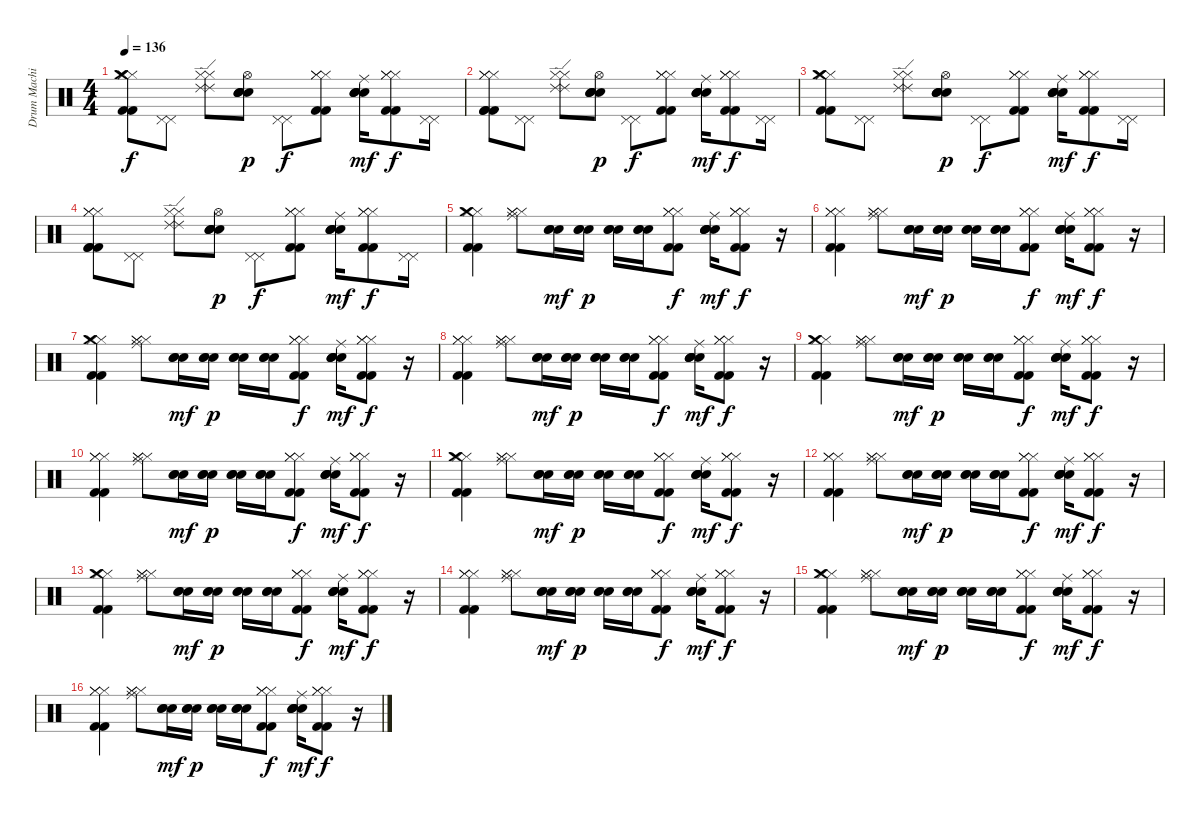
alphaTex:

\track ("Drum Machine" "Drum Machi") {instrument percussion}
\staff {score}
\articulation defaults
\ts (4 4)
\tempo 136
\clef neutral
\ks c
("Hi-Hat (closed)" "Kick (hit) 2" "Crash medium (hit)" "Kick (hit) 2" "Hi-Hat (closed)" "Hi-Hat (closed)").8{dy f} ("Pedal Hi-Hat (hit)" "Pedal Hi-Hat (hit)").8 ("Hi-Hat (closed)" "Hi-Hat (closed)" "Ride (edge) 2" "Ride (edge) 2").8 ("Electric Snare (hit)" "Snare (hit) 2" "Snare (hit) 2" "Hi-Hat (open)" "Electric Snare (hit)").8{dy p} ("Pedal Hi-Hat (hit)" "Pedal Hi-Hat (hit)").8{dy f} ("Hi-Hat (closed)" "Kick (hit) 2" "Hi-Hat (closed)" "Hi-Hat (closed)" "Kick (hit) 2").8 ("Ride (middle)" "Electric Snare (hit)" "Snare (hit) 2" "Snare (hit) 2" "Electric Snare (hit)").16{dy mf} ("Hi-Hat (closed)" "Kick (hit) 2" "Hi-Hat (closed)" "Hi-Hat (closed)" "Kick (hit) 2").8{dy f} ("Pedal Hi-Hat (hit)" "Pedal Hi-Hat (hit)").16 |
("Hi-Hat (closed)" "Kick (hit) 2" "Hi-Hat (closed)" "Kick (hit) 2" "Kick (hit) 2" "Hi-Hat (closed)").8 ("Pedal Hi-Hat (hit)" "Pedal Hi-Hat (hit)").8 ("Hi-Hat (closed)" "Hi-Hat (closed)" "Ride (edge) 2" "Ride (edge) 2").8 ("Electric Snare (hit)" "Snare (hit) 2" "Snare (hit) 2" "Hi-Hat (open)" "Electric Snare (hit)").8{dy p} ("Pedal Hi-Hat (hit)" "Pedal Hi-Hat (hit)").8{dy f} ("Hi-Hat (closed)" "Kick (hit) 2" "Hi-Hat (closed)" "Hi-Hat (closed)" "Kick (hit) 2").8 ("Ride (middle)" "Electric Snare (hit)" "Snare (hit) 2" "Snare (hit) 2" "Electric Snare (hit)").16{dy mf} ("Hi-Hat (closed)" "Kick (hit) 2" "Hi-Hat (closed)" "Hi-Hat (closed)" "Kick (hit) 2").8{dy f} ("Pedal Hi-Hat (hit)" "Pedal Hi-Hat (hit)").16 |
("Hi-Hat (closed)" "Kick (hit) 2" "Crash medium (hit)" "Kick (hit) 2" "Hi-Hat (closed)" "Hi-Hat (closed)").8 ("Pedal Hi-Hat (hit)" "Pedal Hi-Hat (hit)").8 ("Hi-Hat (closed)" "Hi-Hat (closed)" "Ride (edge) 2" "Ride (edge) 2").8 ("Electric Snare (hit)" "Snare (hit) 2" "Snare (hit) 2" "Hi-Hat (open)" "Electric Snare (hit)").8{dy p} ("Pedal Hi-Hat (hit)" "Pedal Hi-Hat (hit)").8{dy f} ("Hi-Hat (closed)" "Kick (hit) 2" "Hi-Hat (closed)" "Hi-Hat (closed)" "Kick (hit) 2").8 ("Ride (middle)" "Electric Snare (hit)" "Snare (hit) 2" "Snare (hit) 2" "Electric Snare (hit)").16{dy mf} ("Hi-Hat (closed)" "Kick (hit) 2" "Hi-Hat (closed)" "Hi-Hat (closed)" "Kick (hit) 2").8{dy f} ("Pedal Hi-Hat (hit)" "Pedal Hi-Hat (hit)").16 |
("Hi-Hat (closed)" "Kick (hit) 2" "Hi-Hat (closed)" "Kick (hit) 2" "Kick (hit) 2" "Hi-Hat (closed)").8 ("Pedal Hi-Hat (hit)" "Pedal Hi-Hat (hit)").8 ("Hi-Hat (closed)" "Hi-Hat (closed)" "Ride (edge) 2" "Ride (edge) 2").8 ("Electric Snare (hit)" "Snare (hit) 2" "Snare (hit) 2" "Hi-Hat (open)" "Electric Snare (hit)").8{dy p} ("Pedal Hi-Hat (hit)" "Pedal Hi-Hat (hit)").8{dy f} ("Hi-Hat (closed)" "Kick (hit) 2" "Hi-Hat (closed)" "Hi-Hat (closed)" "Kick (hit) 2").8 ("Ride (middle)" "Electric Snare (hit)" "Snare (hit) 2" "Snare (hit) 2" "Electric Snare (hit)").16{dy mf} ("Hi-Hat (closed)" "Kick (hit) 2" "Hi-Hat (closed)" "Hi-Hat (closed)" "Kick (hit) 2").8{dy f} ("Pedal Hi-Hat (hit)" "Pedal Hi-Hat (hit)").16 |
("Hi-Hat (closed)" "Kick (hit) 2" "Crash medium (hit)" "Kick (hit) 2" "Hi-Hat (closed)").4 ("Ride (middle)" "Hi-Hat (closed)" "Hi-Hat (closed)" "Hi-Hat (closed)").8 ("Electric Snare (hit)" "Electric Snare (hit)" "Electric Snare (hit)").16{dy mf} ("Snare (hit) 2" "Snare (hit) 2" "Snare (hit) 2").16{dy p} ("Electric Snare (hit)" "Electric Snare (hit)" "Electric Snare (hit)").16 ("Snare (hit) 2" "Snare (hit) 2" "Snare (hit) 2").16 ("Hi-Hat (closed)" "Kick (hit) 2" "Hi-Hat (closed)" "Kick (hit) 2" "Hi-Hat (closed)").8{dy f} ("Ride (middle)" "Electric Snare (hit)" "Snare (hit) 2" "Electric Snare (hit)" "Snare (hit) 2").16{dy mf} ("Hi-Hat (closed)" "Kick (hit) 2" "Hi-Hat (closed)" "Kick (hit) 2" "Hi-Hat (closed)").8{dy f} r.16 |
("Hi-Hat (closed)" "Kick (hit) 2" "Hi-Hat (closed)" "Kick (hit) 2" "Hi-Hat (closed)").4 ("Ride (middle)" "Hi-Hat (closed)" "Hi-Hat (closed)" "Hi-Hat (closed)").8 ("Electric Snare (hit)" "Electric Snare (hit)" "Electric Snare (hit)").16{dy mf} ("Snare (hit) 2" "Snare (hit) 2" "Snare (hit) 2").16{dy p} ("Electric Snare (hit)" "Electric Snare (hit)" "Electric Snare (hit)").16 ("Snare (hit) 2" "Snare (hit) 2" "Snare (hit) 2").16 ("Hi-Hat (closed)" "Kick (hit) 2" "Hi-Hat (closed)" "Kick (hit) 2" "Hi-Hat (closed)").8{dy f} ("Ride (middle)" "Electric Snare (hit)" "Snare (hit) 2" "Electric Snare (hit)" "Snare (hit) 2").16{dy mf} ("Hi-Hat (closed)" "Kick (hit) 2" "Hi-Hat (closed)" "Kick (hit) 2" "Hi-Hat (closed)").8{dy f} r.16 |
("Hi-Hat (closed)" "Kick (hit) 2" "Crash medium (hit)" "Kick (hit) 2" "Hi-Hat (closed)").4 ("Ride (middle)" "Hi-Hat (closed)" "Hi-Hat (closed)" "Hi-Hat (closed)").8 ("Electric Snare (hit)" "Electric Snare (hit)" "Electric Snare (hit)").16{dy mf} ("Snare (hit) 2" "Snare (hit) 2" "Snare (hit) 2").16{dy p} ("Electric Snare (hit)" "Electric Snare (hit)" "Electric Snare (hit)").16 ("Snare (hit) 2" "Snare (hit) 2" "Snare (hit) 2").16 ("Hi-Hat (closed)" "Kick (hit) 2" "Hi-Hat (closed)" "Kick (hit) 2" "Hi-Hat (closed)").8{dy f} ("Ride (middle)" "Electric Snare (hit)" "Snare (hit) 2" "Electric Snare (hit)" "Snare (hit) 2").16{dy mf} ("Hi-Hat (closed)" "Kick (hit) 2" "Hi-Hat (closed)" "Kick (hit) 2" "Hi-Hat (closed)").8{dy f} r.16 |
("Hi-Hat (closed)" "Kick (hit) 2" "Hi-Hat (closed)" "Kick (hit) 2" "Hi-Hat (closed)").4 ("Ride (middle)" "Hi-Hat (closed)" "Hi-Hat (closed)" "Hi-Hat (closed)").8 ("Electric Snare (hit)" "Electric Snare (hit)" "Electric Snare (hit)").16{dy mf} ("Snare (hit) 2" "Snare (hit) 2" "Snare (hit) 2").16{dy p} ("Electric Snare (hit)" "Electric Snare (hit)" "Electric Snare (hit)").16 ("Snare (hit) 2" "Snare (hit) 2" "Snare (hit) 2").16 ("Hi-Hat (closed)" "Kick (hit) 2" "Hi-Hat (closed)" "Kick (hit) 2" "Hi-Hat (closed)").8{dy f} ("Ride (middle)" "Electric Snare (hit)" "Snare (hit) 2" "Electric Snare (hit)" "Snare (hit) 2").16{dy mf} ("Hi-Hat (closed)" "Kick (hit) 2" "Hi-Hat (closed)" "Kick (hit) 2" "Hi-Hat (closed)").8{dy f} r.16 |
("Hi-Hat (closed)" "Kick (hit) 2" "Crash medium (hit)" "Kick (hit) 2" "Hi-Hat (closed)").4 ("Ride (middle)" "Hi-Hat (closed)" "Hi-Hat (closed)" "Hi-Hat (closed)").8 ("Electric Snare (hit)" "Electric Snare (hit)" "Electric Snare (hit)").16{dy mf} ("Snare (hit) 2" "Snare (hit) 2" "Snare (hit) 2").16{dy p} ("Electric Snare (hit)" "Electric Snare (hit)" "Electric Snare (hit)").16 ("Snare (hit) 2" "Snare (hit) 2" "Snare (hit) 2").16 ("Hi-Hat (closed)" "Kick (hit) 2" "Hi-Hat (closed)" "Kick (hit) 2" "Hi-Hat (closed)").8{dy f} ("Ride (middle)" "Electric Snare (hit)" "Snare (hit) 2" "Electric Snare (hit)" "Snare (hit) 2").16{dy mf} ("Hi-Hat (closed)" "Kick (hit) 2" "Hi-Hat (closed)" "Kick (hit) 2" "Hi-Hat (closed)").8{dy f} r.16 |
("Hi-Hat (closed)" "Kick (hit) 2" "Hi-Hat (closed)" "Kick (hit) 2" "Hi-Hat (closed)").4 ("Ride (middle)" "Hi-Hat (closed)" "Hi-Hat (closed)" "Hi-Hat (closed)").8 ("Electric Snare (hit)" "Electric Snare (hit)" "Electric Snare (hit)").16{dy mf} ("Snare (hit) 2" "Snare (hit) 2" "Snare (hit) 2").16{dy p} ("Electric Snare (hit)" "Electric Snare (hit)" "Electric Snare (hit)").16 ("Snare (hit) 2" "Snare (hit) 2" "Snare (hit) 2").16 ("Hi-Hat (closed)" "Kick (hit) 2" "Hi-Hat (closed)" "Kick (hit) 2" "Hi-Hat (closed)").8{dy f} ("Ride (middle)" "Electric Snare (hit)" "Snare (hit) 2" "Electric Snare (hit)" "Snare (hit) 2").16{dy mf} ("Hi-Hat (closed)" "Kick (hit) 2" "Hi-Hat (closed)" "Kick (hit) 2" "Hi-Hat (closed)").8{dy f} r.16 |
("Hi-Hat (closed)" "Kick (hit) 2" "Crash medium (hit)" "Kick (hit) 2" "Hi-Hat (closed)").4 ("Ride (middle)" "Hi-Hat (closed)" "Hi-Hat (closed)" "Hi-Hat (closed)").8 ("Electric Snare (hit)" "Electric Snare (hit)" "Electric Snare (hit)").16{dy mf} ("Snare (hit) 2" "Snare (hit) 2" "Snare (hit) 2").16{dy p} ("Electric Snare (hit)" "Electric Snare (hit)" "Electric Snare (hit)").16 ("Snare (hit) 2" "Snare (hit) 2" "Snare (hit) 2").16 ("Hi-Hat (closed)" "Kick (hit) 2" "Hi-Hat (closed)" "Kick (hit) 2" "Hi-Hat (closed)").8{dy f} ("Ride (middle)" "Electric Snare (hit)" "Snare (hit) 2" "Electric Snare (hit)" "Snare (hit) 2").16{dy mf} ("Hi-Hat (closed)" "Kick (hit) 2" "Hi-Hat (closed)" "Kick (hit) 2" "Hi-Hat (closed)").8{dy f} r.16 |
("Hi-Hat (closed)" "Kick (hit) 2" "Hi-Hat (closed)" "Kick (hit) 2" "Hi-Hat (closed)").4 ("Ride (middle)" "Hi-Hat (closed)" "Hi-Hat (closed)" "Hi-Hat (closed)").8 ("Electric Snare (hit)" "Electric Snare (hit)" "Electric Snare (hit)").16{dy mf} ("Snare (hit) 2" "Snare (hit) 2" "Snare (hit) 2").16{dy p} ("Electric Snare (hit)" "Electric Snare (hit)" "Electric Snare (hit)").16 ("Snare (hit) 2" "Snare (hit) 2" "Snare (hit) 2").16 ("Hi-Hat (closed)" "Kick (hit) 2" "Hi-Hat (closed)" "Kick (hit) 2" "Hi-Hat (closed)").8{dy f} ("Ride (middle)" "Electric Snare (hit)" "Snare (hit) 2" "Electric Snare (hit)" "Snare (hit) 2").16{dy mf} ("Hi-Hat (closed)" "Kick (hit) 2" "Hi-Hat (closed)" "Kick (hit) 2" "Hi-Hat (closed)").8{dy f} r.16 |
("Hi-Hat (closed)" "Kick (hit) 2" "Crash medium (hit)" "Kick (hit) 2" "Hi-Hat (closed)").4 ("Ride (middle)" "Hi-Hat (closed)" "Hi-Hat (closed)" "Hi-Hat (closed)").8 ("Electric Snare (hit)" "Electric Snare (hit)" "Electric Snare (hit)").16{dy mf} ("Snare (hit) 2" "Snare (hit) 2" "Snare (hit) 2").16{dy p} ("Electric Snare (hit)" "Electric Snare (hit)" "Electric Snare (hit)").16 ("Snare (hit) 2" "Snare (hit) 2" "Snare (hit) 2").16 ("Hi-Hat (closed)" "Kick (hit) 2" "Hi-Hat (closed)" "Kick (hit) 2" "Hi-Hat (closed)").8{dy f} ("Ride (middle)" "Electric Snare (hit)" "Snare (hit) 2" "Electric Snare (hit)" "Snare (hit) 2").16{dy mf} ("Hi-Hat (closed)" "Kick (hit) 2" "Hi-Hat (closed)" "Kick (hit) 2" "Hi-Hat (closed)").8{dy f} r.16 |
("Hi-Hat (closed)" "Kick (hit) 2" "Hi-Hat (closed)" "Kick (hit) 2" "Hi-Hat (closed)").4 ("Ride (middle)" "Hi-Hat (closed)" "Hi-Hat (closed)" "Hi-Hat (closed)").8 ("Electric Snare (hit)" "Electric Snare (hit)" "Electric Snare (hit)").16{dy mf} ("Snare (hit) 2" "Snare (hit) 2" "Snare (hit) 2").16{dy p} ("Electric Snare (hit)" "Electric Snare (hit)" "Electric Snare (hit)").16 ("Snare (hit) 2" "Snare (hit) 2" "Snare (hit) 2").16 ("Hi-Hat (closed)" "Kick (hit) 2" "Hi-Hat (closed)" "Kick (hit) 2" "Hi-Hat (closed)").8{dy f} ("Ride (middle)" "Electric Snare (hit)" "Snare (hit) 2" "Electric Snare (hit)" "Snare (hit) 2").16{dy mf} ("Hi-Hat (closed)" "Kick (hit) 2" "Hi-Hat (closed)" "Kick (hit) 2" "Hi-Hat (closed)").8{dy f} r.16 |
("Hi-Hat (closed)" "Kick (hit) 2" "Crash medium (hit)" "Kick (hit) 2" "Hi-Hat (closed)").4 ("Ride (middle)" "Hi-Hat (closed)" "Hi-Hat (closed)" "Hi-Hat (closed)").8 ("Electric Snare (hit)" "Electric Snare (hit)" "Electric Snare (hit)").16{dy mf} ("Snare (hit) 2" "Snare (hit) 2" "Snare (hit) 2").16{dy p} ("Electric Snare (hit)" "Electric Snare (hit)" "Electric Snare (hit)").16 ("Snare (hit) 2" "Snare (hit) 2" "Snare (hit) 2").16 ("Hi-Hat (closed)" "Kick (hit) 2" "Hi-Hat (closed)" "Kick (hit) 2" "Hi-Hat (closed)").8{dy f} ("Ride (middle)" "Electric Snare (hit)" "Snare (hit) 2" "Electric Snare (hit)" "Snare (hit) 2").16{dy mf} ("Hi-Hat (closed)" "Kick (hit) 2" "Hi-Hat (closed)" "Kick (hit) 2" "Hi-Hat (closed)").8{dy f} r.16 |
("Hi-Hat (closed)" "Kick (hit) 2" "Hi-Hat (closed)" "Kick (hit) 2" "Hi-Hat (closed)").4 ("Ride (middle)" "Hi-Hat (closed)" "Hi-Hat (closed)" "Hi-Hat (closed)").8 ("Electric Snare (hit)" "Electric Snare (hit)" "Electric Snare (hit)").16{dy mf} ("Snare (hit) 2" "Snare (hit) 2" "Snare (hit) 2").16{dy p} ("Electric Snare (hit)" "Electric Snare (hit)" "Electric Snare (hit)").16 ("Snare (hit) 2" "Snare (hit) 2" "Snare (hit) 2").16 ("Hi-Hat (closed)" "Kick (hit) 2" "Hi-Hat (closed)" "Kick (hit) 2" "Hi-Hat (closed)").8{dy f} ("Ride (middle)" "Electric Snare (hit)" "Snare (hit) 2" "Electric Snare (hit)" "Snare (hit) 2").16{dy mf} ("Hi-Hat (closed)" "Kick (hit) 2" "Hi-Hat (closed)" "Kick (hit) 2" "Hi-Hat (closed)").8{dy f} r.16
